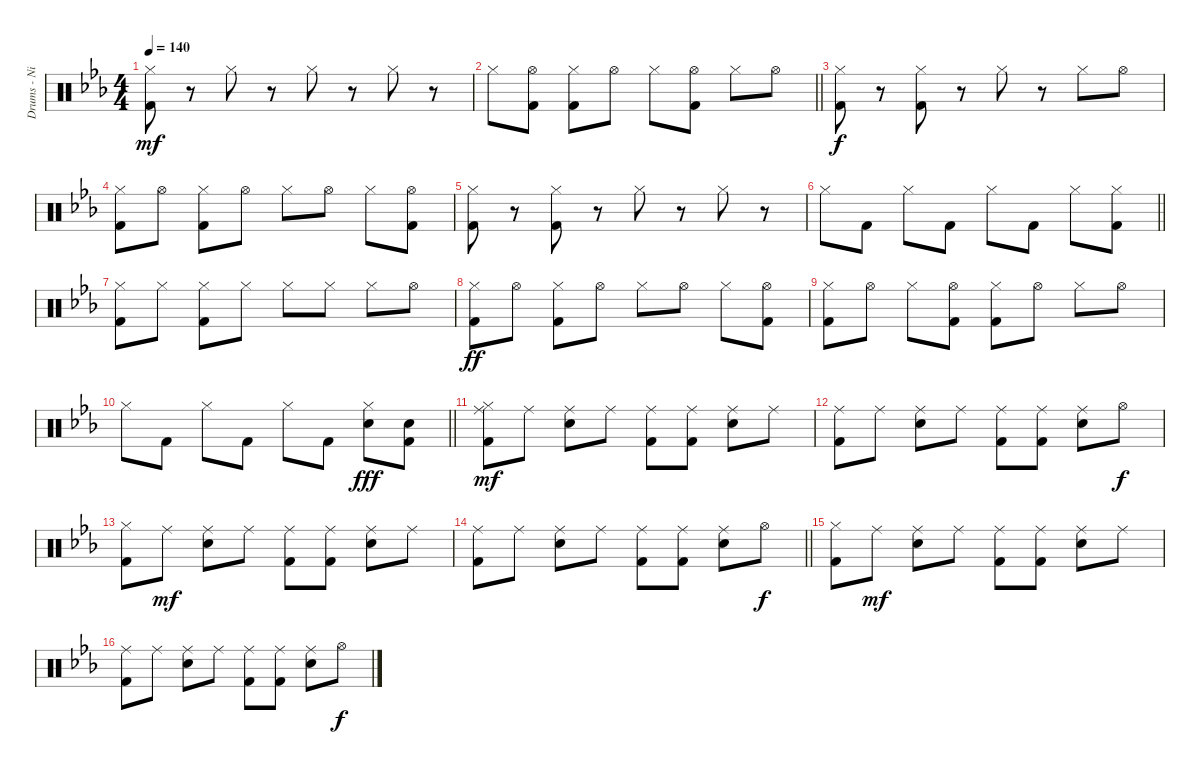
\track ("Drums - Nigel Olsen" "Drums - Ni") {instrument percussion}
\staff {score}
\articulation defaults
\ts (4 4)
\tempo 140
\clef neutral
\ks cminor
("Hi-Hat (closed)" "Kick (hit) 2").8{dy mf} r.8 "Hi-Hat (closed)".8 r.8 "Hi-Hat (closed)".8 r.8 "Hi-Hat (closed)".8 r.8 |
\barLineRight lightlight "Hi-Hat (closed)".8
("Hi-Hat (open)" "Kick (hit) 2").8 ("Hi-Hat (closed)" "Kick (hit) 2").8 "Hi-Hat (open)".8 "Hi-Hat (closed)".8 ("Hi-Hat (open)" "Kick (hit) 2").8 "Hi-Hat (closed)".8 "Hi-Hat (open)".8 |
("Hi-Hat (closed)" "Kick (hit) 2").8{dy f} r.8 ("Hi-Hat (closed)" "Kick (hit) 2").8 r.8 "Hi-Hat (closed)".8 r.8 "Hi-Hat (closed)".8 "Hi-Hat (open)".8 |
("Hi-Hat (closed)" "Kick (hit) 2").8 "Hi-Hat (open)".8 ("Hi-Hat (closed)" "Kick (hit) 2").8 "Hi-Hat (open)".8 "Hi-Hat (closed)".8 "Hi-Hat (open)".8 "Hi-Hat (closed)".8 ("Hi-Hat (open)" "Kick (hit) 2").8 |
("Hi-Hat (closed)" "Kick (hit) 2").8 r.8 ("Hi-Hat (closed)" "Kick (hit) 2").8 r.8 "Hi-Hat (closed)".8 r.8 "Hi-Hat (closed)".8 r.8 |
\barLineRight lightlight "Hi-Hat (closed)".8 "Kick (hit) 2".8 "Hi-Hat (closed)".8 "Kick (hit) 2".8 "Hi-Hat (closed)".8 "Kick (hit) 2".8 "Hi-Hat (closed)".8
("Hi-Hat (closed)" "Kick (hit) 2").8 |
("Hi-Hat (closed)" "Kick (hit) 2").8 "Hi-Hat (closed)".8 ("Hi-Hat (closed)" "Kick (hit) 2").8 "Hi-Hat (closed)".8 "Hi-Hat (closed)".8 "Hi-Hat (closed)".8 "Hi-Hat (closed)".8 "Hi-Hat (open)".8 |
("Hi-Hat (closed)" "Kick (hit) 2").8{dy ff} "Hi-Hat (open)".8 ("Hi-Hat (closed)" "Kick (hit) 2").8 "Hi-Hat (open)".8 "Hi-Hat (closed)".8 "Hi-Hat (open)".8 "Hi-Hat (closed)".8 ("Hi-Hat (open)" "Kick (hit) 2").8 |
("Hi-Hat (closed)" "Kick (hit) 2").8 "Hi-Hat (open)".8 "Hi-Hat (closed)".8 ("Hi-Hat (open)" "Kick (hit) 2").8 ("Hi-Hat (closed)" "Kick (hit) 2").8 "Hi-Hat (open)".8 "Hi-Hat (closed)".8 "Hi-Hat (open)".8 |
\barLineRight lightlight "Hi-Hat (closed)".8 "Kick (hit) 2".8 "Hi-Hat (closed)".8 "Kick (hit) 2".8 "Hi-Hat (closed)".8 "Kick (hit) 2".8
("Hi-Hat (closed)" "Snare (hit) 2").8{dy fff} ("Snare (hit) 2" "Kick (hit) 2").8 |
("Ride (middle)" "Hi-Hat (closed)" "Kick (hit) 2").8{dy mf} "Ride (middle)".8 ("Ride (middle)" "Snare (hit) 2").8 "Ride (middle)".8 ("Ride (middle)" "Kick (hit) 2").8 ("Ride (middle)" "Kick (hit) 2").8 ("Ride (middle)" "Snare (hit) 2").8 "Ride (middle)".8 |
("Ride (middle)" "Kick (hit) 2").8 "Ride (middle)".8 ("Ride (middle)" "Snare (hit) 2").8 "Ride (middle)".8 ("Ride (middle)" "Kick (hit) 2").8 ("Ride (middle)" "Kick (hit) 2").8 ("Ride (middle)" "Snare (hit) 2").8 "Hi-Hat (open)".8{dy f} |
("Hi-Hat (closed)" "Kick (hit) 2").8 "Ride (middle)".8{dy mf} ("Ride (middle)" "Snare (hit) 2").8 "Ride (middle)".8 ("Ride (middle)" "Kick (hit) 2").8 ("Ride (middle)" "Kick (hit) 2").8 ("Ride (middle)" "Snare (hit) 2").8 "Ride (middle)".8 |
\barLineRight lightlight
("Ride (middle)" "Kick (hit) 2").8 "Ride (middle)".8 ("Ride (middle)" "Snare (hit) 2").8 "Ride (middle)".8 ("Ride (middle)" "Kick (hit) 2").8 ("Ride (middle)" "Kick (hit) 2").8 ("Ride (middle)" "Snare (hit) 2").8 "Hi-Hat (open)".8{dy f} |
("Hi-Hat (closed)" "Kick (hit) 2").8 "Ride (middle)".8{dy mf} ("Ride (middle)" "Snare (hit) 2").8 "Ride (middle)".8 ("Ride (middle)" "Kick (hit) 2").8 ("Ride (middle)" "Kick (hit) 2").8 ("Ride (middle)" "Snare (hit) 2").8 "Ride (middle)".8 |
("Ride (middle)" "Kick (hit) 2").8 "Ride (middle)".8 ("Ride (middle)" "Snare (hit) 2").8 "Ride (middle)".8 ("Ride (middle)" "Kick (hit) 2").8 ("Ride (middle)" "Kick (hit) 2").8 ("Ride (middle)" "Snare (hit) 2").8 "Hi-Hat (open)".8{dy f}
